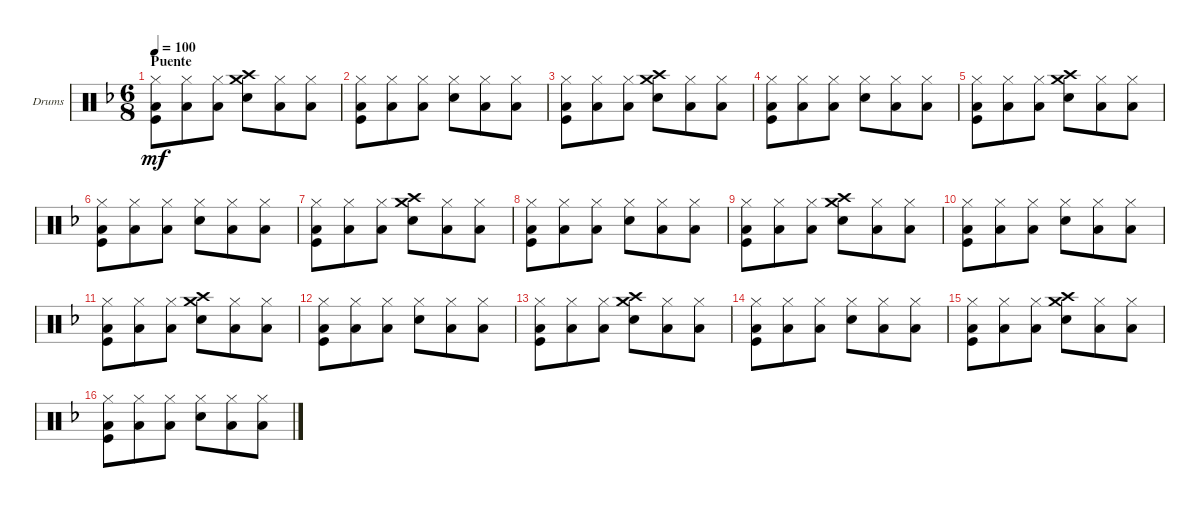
\defaultSystemsLayout 4
\bracketExtendMode groupsimilarinstruments
\firstSystemTrackNameOrientation horizontal
\otherSystemsTrackNameOrientation horizontal
\track ("Drumkit" "Drums") {instrument percussion}
\staff {score}
\articulation defaults
\ts (6 8)
\section ("" "Puente")
\tempo 100
\clef neutral
\ks dminor
("Kick (hit)" "Hi-Hat (closed)" "Low Tom (hit)").8{dy mf} ("Hi-Hat (closed)" "Low Tom (hit)").8 ("Hi-Hat (closed)" "Low Tom (hit)").8 ("Snare (hit) 2" "Crash high (hit)" "Crash medium (hit)").8 ("Hi-Hat (closed)" "Low Tom (hit)").8 ("Hi-Hat (closed)" "Low Tom (hit)").8 |
("Kick (hit)" "Hi-Hat (closed)" "Low Tom (hit)").8 ("Hi-Hat (closed)" "Low Tom (hit)").8 ("Hi-Hat (closed)" "Low Tom (hit)").8 ("Hi-Hat (closed)" "Snare (hit) 2").8 ("Hi-Hat (closed)" "Low Tom (hit)").8 ("Hi-Hat (closed)" "Low Tom (hit)").8 |
("Kick (hit)" "Hi-Hat (closed)" "Low Tom (hit)").8 ("Hi-Hat (closed)" "Low Tom (hit)").8 ("Hi-Hat (closed)" "Low Tom (hit)").8 ("Snare (hit) 2" "Crash high (hit)" "Crash medium (hit)").8 ("Hi-Hat (closed)" "Low Tom (hit)").8 ("Hi-Hat (closed)" "Low Tom (hit)").8 |
("Kick (hit)" "Hi-Hat (closed)" "Low Tom (hit)").8 ("Hi-Hat (closed)" "Low Tom (hit)").8 ("Hi-Hat (closed)" "Low Tom (hit)").8 ("Hi-Hat (closed)" "Snare (hit) 2").8 ("Hi-Hat (closed)" "Low Tom (hit)").8 ("Hi-Hat (closed)" "Low Tom (hit)").8 |
("Kick (hit)" "Hi-Hat (closed)" "Low Tom (hit)").8 ("Hi-Hat (closed)" "Low Tom (hit)").8 ("Hi-Hat (closed)" "Low Tom (hit)").8 ("Snare (hit) 2" "Crash high (hit)" "Crash medium (hit)").8 ("Hi-Hat (closed)" "Low Tom (hit)").8 ("Hi-Hat (closed)" "Low Tom (hit)").8 |
("Kick (hit)" "Hi-Hat (closed)" "Low Tom (hit)").8 ("Hi-Hat (closed)" "Low Tom (hit)").8 ("Hi-Hat (closed)" "Low Tom (hit)").8 ("Hi-Hat (closed)" "Snare (hit) 2").8 ("Hi-Hat (closed)" "Low Tom (hit)").8 ("Hi-Hat (closed)" "Low Tom (hit)").8 |
("Kick (hit)" "Hi-Hat (closed)" "Low Tom (hit)").8 ("Hi-Hat (closed)" "Low Tom (hit)").8 ("Hi-Hat (closed)" "Low Tom (hit)").8 ("Snare (hit) 2" "Crash high (hit)" "Crash medium (hit)").8 ("Hi-Hat (closed)" "Low Tom (hit)").8 ("Hi-Hat (closed)" "Low Tom (hit)").8 |
("Kick (hit)" "Hi-Hat (closed)" "Low Tom (hit)").8 ("Hi-Hat (closed)" "Low Tom (hit)").8 ("Hi-Hat (closed)" "Low Tom (hit)").8 ("Hi-Hat (closed)" "Snare (hit) 2").8 ("Hi-Hat (closed)" "Low Tom (hit)").8 ("Hi-Hat (closed)" "Low Tom (hit)").8 |
("Kick (hit)" "Hi-Hat (closed)" "Low Tom (hit)").8 ("Hi-Hat (closed)" "Low Tom (hit)").8 ("Hi-Hat (closed)" "Low Tom (hit)").8 ("Snare (hit) 2" "Crash high (hit)" "Crash medium (hit)").8 ("Hi-Hat (closed)" "Low Tom (hit)").8 ("Hi-Hat (closed)" "Low Tom (hit)").8 |
("Kick (hit)" "Hi-Hat (closed)" "Low Tom (hit)").8 ("Hi-Hat (closed)" "Low Tom (hit)").8 ("Hi-Hat (closed)" "Low Tom (hit)").8 ("Hi-Hat (closed)" "Snare (hit) 2").8 ("Hi-Hat (closed)" "Low Tom (hit)").8 ("Hi-Hat (closed)" "Low Tom (hit)").8 |
("Kick (hit)" "Hi-Hat (closed)" "Low Tom (hit)").8 ("Hi-Hat (closed)" "Low Tom (hit)").8 ("Hi-Hat (closed)" "Low Tom (hit)").8 ("Snare (hit) 2" "Crash high (hit)" "Crash medium (hit)").8 ("Hi-Hat (closed)" "Low Tom (hit)").8 ("Hi-Hat (closed)" "Low Tom (hit)").8 |
("Kick (hit)" "Hi-Hat (closed)" "Low Tom (hit)").8 ("Hi-Hat (closed)" "Low Tom (hit)").8 ("Hi-Hat (closed)" "Low Tom (hit)").8 ("Hi-Hat (closed)" "Snare (hit) 2").8 ("Hi-Hat (closed)" "Low Tom (hit)").8 ("Hi-Hat (closed)" "Low Tom (hit)").8 |
("Kick (hit)" "Hi-Hat (closed)" "Low Tom (hit)").8 ("Hi-Hat (closed)" "Low Tom (hit)").8 ("Hi-Hat (closed)" "Low Tom (hit)").8 ("Snare (hit) 2" "Crash high (hit)" "Crash medium (hit)").8 ("Hi-Hat (closed)" "Low Tom (hit)").8 ("Hi-Hat (closed)" "Low Tom (hit)").8 |
("Kick (hit)" "Hi-Hat (closed)" "Low Tom (hit)").8 ("Hi-Hat (closed)" "Low Tom (hit)").8 ("Hi-Hat (closed)" "Low Tom (hit)").8 ("Hi-Hat (closed)" "Snare (hit) 2").8 ("Hi-Hat (closed)" "Low Tom (hit)").8 ("Hi-Hat (closed)" "Low Tom (hit)").8 |
("Kick (hit)" "Hi-Hat (closed)" "Low Tom (hit)").8 ("Hi-Hat (closed)" "Low Tom (hit)").8 ("Hi-Hat (closed)" "Low Tom (hit)").8 ("Snare (hit) 2" "Crash high (hit)" "Crash medium (hit)").8 ("Hi-Hat (closed)" "Low Tom (hit)").8 ("Hi-Hat (closed)" "Low Tom (hit)").8 |
("Kick (hit)" "Hi-Hat (closed)" "Low Tom (hit)").8 ("Hi-Hat (closed)" "Low Tom (hit)").8 ("Hi-Hat (closed)" "Low Tom (hit)").8 ("Hi-Hat (closed)" "Snare (hit) 2").8 ("Hi-Hat (closed)" "Low Tom (hit)").8 ("Hi-Hat (closed)" "Low Tom (hit)").8
